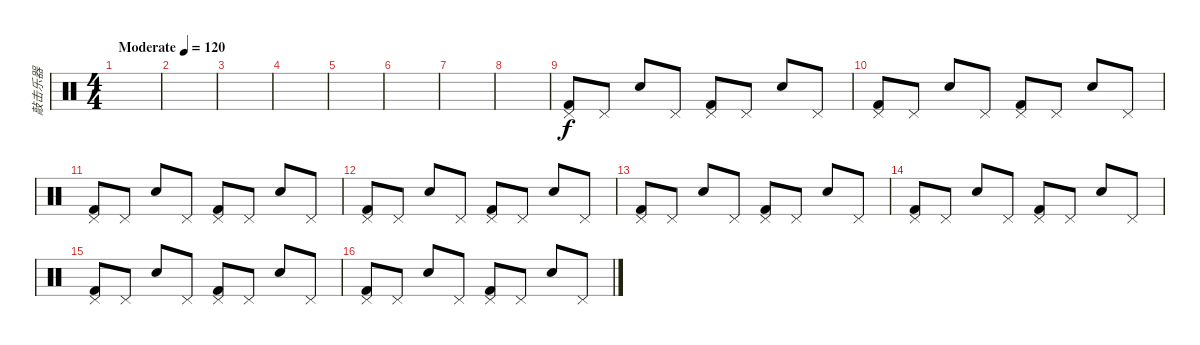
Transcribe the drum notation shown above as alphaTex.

\track ("敲击乐器" "敲击乐器") {instrument percussion}
\staff {score}
\articulation defaults
\ts (4 4)
\tempo (120 "Moderate")
\clef neutral
\ks c
|
|
|
|
|
|
|
|
("Pedal Hi-Hat (hit)" "Kick (hit) 2").8 "Pedal Hi-Hat (hit)".8 "Snare (hit) 2".8 "Pedal Hi-Hat (hit)".8 ("Pedal Hi-Hat (hit)" "Kick (hit) 2").8 "Pedal Hi-Hat (hit)".8 "Snare (hit) 2".8 "Pedal Hi-Hat (hit)".8 |
("Pedal Hi-Hat (hit)" "Kick (hit) 2").8 "Pedal Hi-Hat (hit)".8 "Snare (hit) 2".8 "Pedal Hi-Hat (hit)".8 ("Pedal Hi-Hat (hit)" "Kick (hit) 2").8 "Pedal Hi-Hat (hit)".8 "Snare (hit) 2".8 "Pedal Hi-Hat (hit)".8 |
("Pedal Hi-Hat (hit)" "Kick (hit) 2").8 "Pedal Hi-Hat (hit)".8 "Snare (hit) 2".8 "Pedal Hi-Hat (hit)".8 ("Pedal Hi-Hat (hit)" "Kick (hit) 2").8 "Pedal Hi-Hat (hit)".8 "Snare (hit) 2".8 "Pedal Hi-Hat (hit)".8 |
("Pedal Hi-Hat (hit)" "Kick (hit) 2").8 "Pedal Hi-Hat (hit)".8 "Snare (hit) 2".8 "Pedal Hi-Hat (hit)".8 ("Pedal Hi-Hat (hit)" "Kick (hit) 2").8 "Pedal Hi-Hat (hit)".8 "Snare (hit) 2".8 "Pedal Hi-Hat (hit)".8 |
("Pedal Hi-Hat (hit)" "Kick (hit) 2").8 "Pedal Hi-Hat (hit)".8 "Snare (hit) 2".8 "Pedal Hi-Hat (hit)".8 ("Pedal Hi-Hat (hit)" "Kick (hit) 2").8 "Pedal Hi-Hat (hit)".8 "Snare (hit) 2".8 "Pedal Hi-Hat (hit)".8 |
("Pedal Hi-Hat (hit)" "Kick (hit) 2").8 "Pedal Hi-Hat (hit)".8 "Snare (hit) 2".8 "Pedal Hi-Hat (hit)".8 ("Pedal Hi-Hat (hit)" "Kick (hit) 2").8 "Pedal Hi-Hat (hit)".8 "Snare (hit) 2".8 "Pedal Hi-Hat (hit)".8 |
("Pedal Hi-Hat (hit)" "Kick (hit) 2").8 "Pedal Hi-Hat (hit)".8 "Snare (hit) 2".8 "Pedal Hi-Hat (hit)".8 ("Pedal Hi-Hat (hit)" "Kick (hit) 2").8 "Pedal Hi-Hat (hit)".8 "Snare (hit) 2".8 "Pedal Hi-Hat (hit)".8 |
("Pedal Hi-Hat (hit)" "Kick (hit) 2").8 "Pedal Hi-Hat (hit)".8 "Snare (hit) 2".8 "Pedal Hi-Hat (hit)".8 ("Pedal Hi-Hat (hit)" "Kick (hit) 2").8 "Pedal Hi-Hat (hit)".8 "Snare (hit) 2".8 "Pedal Hi-Hat (hit)".8
